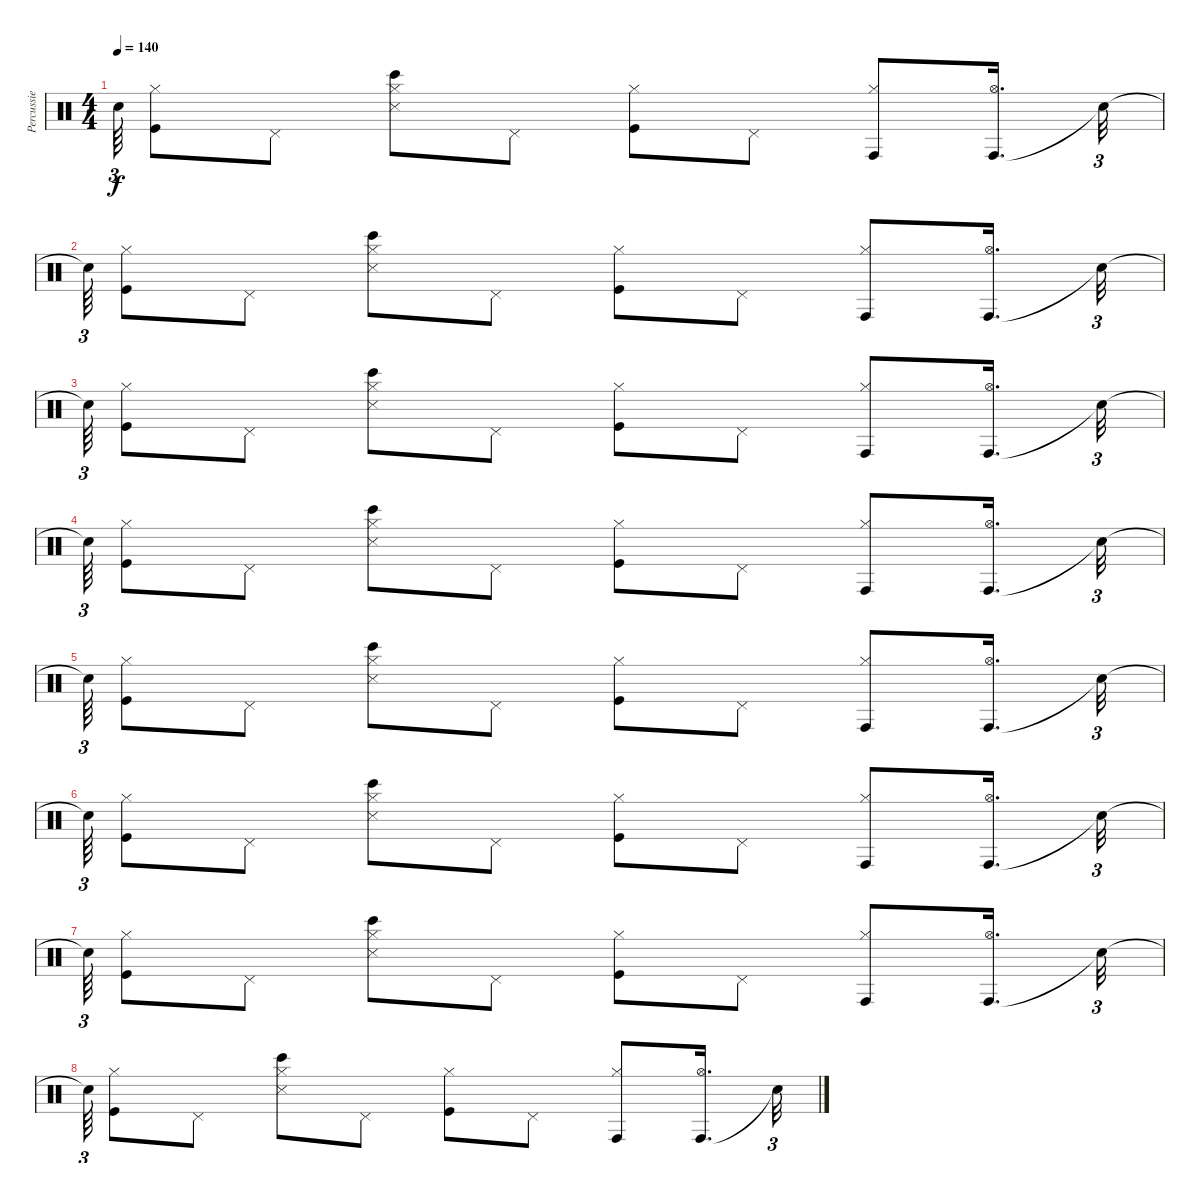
\track ("Percussie" "Percussie") {instrument percussion}
\staff {score}
\articulation defaults
\ts (4 4)
\tempo 140
\clef neutral
\ks c "Snare (hit)"{t}.64{tu (3 2) dy f}
("Kick (hit)" "Hi-Hat (closed)").8 "Pedal Hi-Hat (hit)".8 ("Bongo High (hit)" "Snare (side stick) 3" "Hi-Hat (closed)").8 "Pedal Hi-Hat (hit)".8 ("Kick (hit)" "Hi-Hat (closed)").8 "Pedal Hi-Hat (hit)".8 ("Conga high (hit)" "Hi-Hat (closed)").8 ("Conga high (hit)" "Hi-Hat (open)").16{d} "Snare (hit)"{t}.32{tu (3 2)} |
"Snare (hit)"{t}.64{tu (3 2)} ("Kick (hit)" "Hi-Hat (closed)").8 "Pedal Hi-Hat (hit)".8 ("Bongo High (hit)" "Snare (side stick) 3" "Hi-Hat (closed)").8 "Pedal Hi-Hat (hit)".8 ("Kick (hit)" "Hi-Hat (closed)").8 "Pedal Hi-Hat (hit)".8 ("Conga high (hit)" "Hi-Hat (closed)").8 ("Conga high (hit)" "Hi-Hat (open)").16{d} "Snare (hit)"{t}.32{tu (3 2)} |
"Snare (hit)"{t}.64{tu (3 2)} ("Kick (hit)" "Hi-Hat (closed)").8 "Pedal Hi-Hat (hit)".8 ("Bongo High (hit)" "Snare (side stick) 3" "Hi-Hat (closed)").8 "Pedal Hi-Hat (hit)".8 ("Kick (hit)" "Hi-Hat (closed)").8 "Pedal Hi-Hat (hit)".8 ("Conga high (hit)" "Hi-Hat (closed)").8 ("Conga high (hit)" "Hi-Hat (open)").16{d} "Snare (hit)"{t}.32{tu (3 2)} |
"Snare (hit)"{t}.64{tu (3 2)} ("Kick (hit)" "Hi-Hat (closed)").8 "Pedal Hi-Hat (hit)".8 ("Bongo High (hit)" "Snare (side stick) 3" "Hi-Hat (closed)").8 "Pedal Hi-Hat (hit)".8 ("Kick (hit)" "Hi-Hat (closed)").8 "Pedal Hi-Hat (hit)".8 ("Conga high (hit)" "Hi-Hat (closed)").8 ("Conga high (hit)" "Hi-Hat (open)").16{d} "Snare (hit)"{t}.32{tu (3 2)} |
"Snare (hit)"{t}.64{tu (3 2)} ("Kick (hit)" "Hi-Hat (closed)").8 "Pedal Hi-Hat (hit)".8 ("Bongo High (hit)" "Snare (side stick) 3" "Hi-Hat (closed)").8 "Pedal Hi-Hat (hit)".8 ("Kick (hit)" "Hi-Hat (closed)").8 "Pedal Hi-Hat (hit)".8 ("Conga high (hit)" "Hi-Hat (closed)").8 ("Conga high (hit)" "Hi-Hat (open)").16{d} "Snare (hit)"{t}.32{tu (3 2)} |
"Snare (hit)"{t}.64{tu (3 2)} ("Kick (hit)" "Hi-Hat (closed)").8 "Pedal Hi-Hat (hit)".8 ("Bongo High (hit)" "Snare (side stick) 3" "Hi-Hat (closed)").8 "Pedal Hi-Hat (hit)".8 ("Kick (hit)" "Hi-Hat (closed)").8 "Pedal Hi-Hat (hit)".8 ("Conga high (hit)" "Hi-Hat (closed)").8 ("Conga high (hit)" "Hi-Hat (open)").16{d} "Snare (hit)"{t}.32{tu (3 2)} |
"Snare (hit)"{t}.64{tu (3 2)} ("Kick (hit)" "Hi-Hat (closed)").8 "Pedal Hi-Hat (hit)".8 ("Bongo High (hit)" "Snare (side stick) 3" "Hi-Hat (closed)").8 "Pedal Hi-Hat (hit)".8 ("Kick (hit)" "Hi-Hat (closed)").8 "Pedal Hi-Hat (hit)".8 ("Conga high (hit)" "Hi-Hat (closed)").8 ("Conga high (hit)" "Hi-Hat (open)").16{d} "Snare (hit)"{t}.32{tu (3 2)} |
"Snare (hit)"{t}.64{tu (3 2)} ("Kick (hit)" "Hi-Hat (closed)").8 "Pedal Hi-Hat (hit)".8 ("Bongo High (hit)" "Snare (side stick) 3" "Hi-Hat (closed)").8 "Pedal Hi-Hat (hit)".8 ("Kick (hit)" "Hi-Hat (closed)").8 "Pedal Hi-Hat (hit)".8 ("Conga high (hit)" "Hi-Hat (closed)").8 ("Conga high (hit)" "Hi-Hat (open)").16{d} "Snare (hit)"{t}.32{tu (3 2)}
